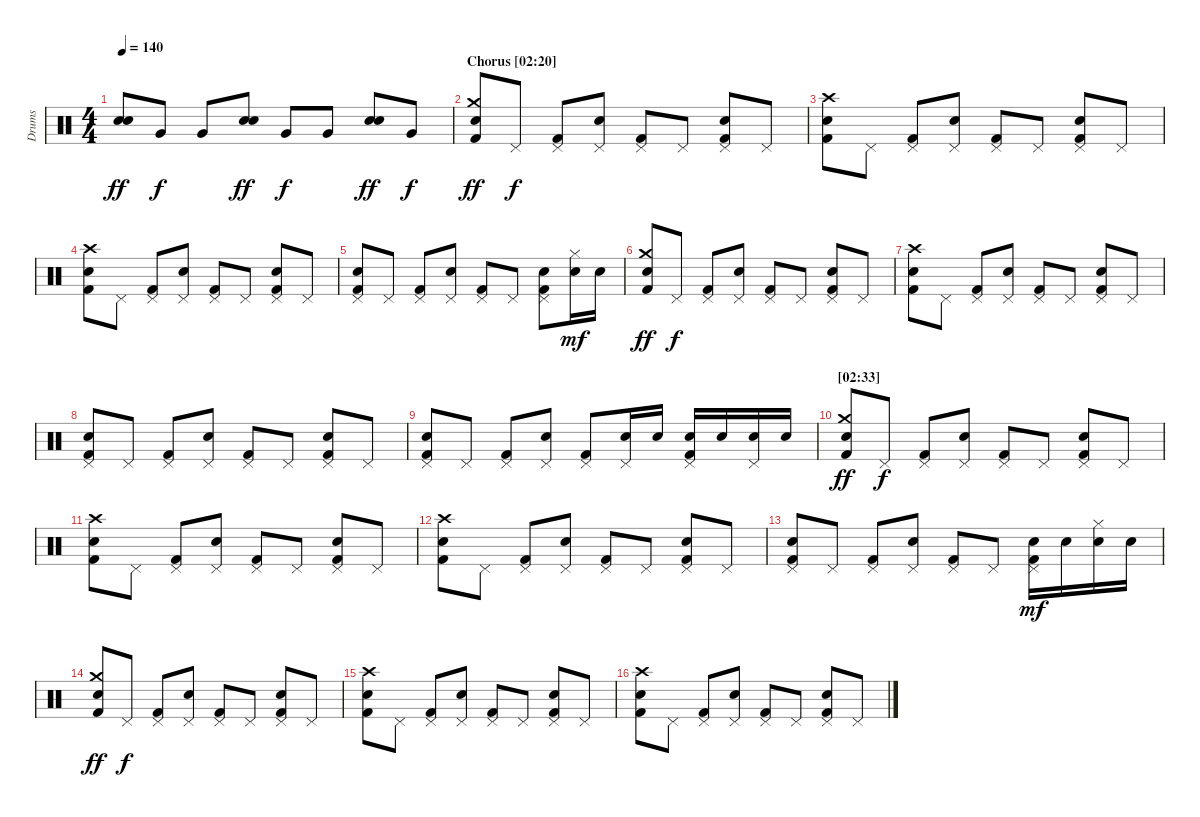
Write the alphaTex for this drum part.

\track ("Drums" "Drums") {instrument percussion}
\staff {score}
\articulation defaults
\ts (4 4)
\tempo 140
\clef neutral
\ks c
("Snare (hit) 2" "Electric Snare (hit)").8{dy ff} "Very Low Tom (hit)".8{dy f} "Very Low Tom (hit)".8 ("Snare (hit) 2" "Electric Snare (hit)").8{dy ff} "Very Low Tom (hit)".8{dy f} "Very Low Tom (hit)".8 ("Snare (hit) 2" "Electric Snare (hit)").8{dy ff} "Very Low Tom (hit)".8{dy f} |
\section ("" "Chorus [02:20]")
("Crash medium (hit)" "Electric Snare (hit)" "Kick (hit) 2").8{dy ff} "Pedal Hi-Hat (hit)".8{dy f} ("Pedal Hi-Hat (hit)" "Kick (hit) 2").8 ("Pedal Hi-Hat (hit)" "Electric Snare (hit)").8 ("Pedal Hi-Hat (hit)" "Kick (hit) 2").8 "Pedal Hi-Hat (hit)".8 ("Pedal Hi-Hat (hit)" "Electric Snare (hit)" "Kick (hit) 2").8 "Pedal Hi-Hat (hit)".8 |
("Crash high (hit)" "Electric Snare (hit)" "Kick (hit) 2").8 "Pedal Hi-Hat (hit)".8 ("Pedal Hi-Hat (hit)" "Kick (hit) 2").8 ("Pedal Hi-Hat (hit)" "Electric Snare (hit)").8 ("Pedal Hi-Hat (hit)" "Kick (hit) 2").8 "Pedal Hi-Hat (hit)".8 ("Pedal Hi-Hat (hit)" "Electric Snare (hit)" "Kick (hit) 2").8 "Pedal Hi-Hat (hit)".8 |
("Crash high (hit)" "Electric Snare (hit)" "Kick (hit) 2").8 "Pedal Hi-Hat (hit)".8 ("Pedal Hi-Hat (hit)" "Kick (hit) 2").8 ("Pedal Hi-Hat (hit)" "Electric Snare (hit)").8 ("Pedal Hi-Hat (hit)" "Kick (hit) 2").8 "Pedal Hi-Hat (hit)".8 ("Pedal Hi-Hat (hit)" "Electric Snare (hit)" "Kick (hit) 2").8 "Pedal Hi-Hat (hit)".8 |
("Pedal Hi-Hat (hit)" "Electric Snare (hit)" "Kick (hit) 2").8 "Pedal Hi-Hat (hit)".8 ("Pedal Hi-Hat (hit)" "Kick (hit) 2").8 ("Pedal Hi-Hat (hit)" "Electric Snare (hit)").8 ("Pedal Hi-Hat (hit)" "Kick (hit) 2").8 "Pedal Hi-Hat (hit)".8 ("Pedal Hi-Hat (hit)" "Electric Snare (hit)" "Kick (hit) 2").8 ("Hi-Hat (closed)" "Electric Snare (hit)").16{dy mf} "Electric Snare (hit)".16 |
("Crash medium (hit)" "Electric Snare (hit)" "Kick (hit) 2").8{dy ff} "Pedal Hi-Hat (hit)".8{dy f} ("Pedal Hi-Hat (hit)" "Kick (hit) 2").8 ("Pedal Hi-Hat (hit)" "Electric Snare (hit)").8 ("Pedal Hi-Hat (hit)" "Kick (hit) 2").8 "Pedal Hi-Hat (hit)".8 ("Pedal Hi-Hat (hit)" "Electric Snare (hit)" "Kick (hit) 2").8 "Pedal Hi-Hat (hit)".8 |
("Crash high (hit)" "Electric Snare (hit)" "Kick (hit) 2").8 "Pedal Hi-Hat (hit)".8 ("Pedal Hi-Hat (hit)" "Kick (hit) 2").8 ("Pedal Hi-Hat (hit)" "Electric Snare (hit)").8 ("Pedal Hi-Hat (hit)" "Kick (hit) 2").8 "Pedal Hi-Hat (hit)".8 ("Pedal Hi-Hat (hit)" "Electric Snare (hit)" "Kick (hit) 2").8 "Pedal Hi-Hat (hit)".8 |
("Pedal Hi-Hat (hit)" "Electric Snare (hit)" "Kick (hit) 2").8 "Pedal Hi-Hat (hit)".8 ("Pedal Hi-Hat (hit)" "Kick (hit) 2").8 ("Pedal Hi-Hat (hit)" "Electric Snare (hit)").8 ("Pedal Hi-Hat (hit)" "Kick (hit) 2").8 "Pedal Hi-Hat (hit)".8 ("Pedal Hi-Hat (hit)" "Electric Snare (hit)" "Kick (hit) 2").8 "Pedal Hi-Hat (hit)".8 |
("Pedal Hi-Hat (hit)" "Electric Snare (hit)" "Kick (hit) 2").8 "Pedal Hi-Hat (hit)".8 ("Pedal Hi-Hat (hit)" "Kick (hit) 2").8 ("Pedal Hi-Hat (hit)" "Electric Snare (hit)").8 ("Pedal Hi-Hat (hit)" "Kick (hit) 2").8 ("Pedal Hi-Hat (hit)" "Electric Snare (hit)").16 "Electric Snare (hit)".16 ("Pedal Hi-Hat (hit)" "Electric Snare (hit)" "Kick (hit) 2").16 "Electric Snare (hit)".16 ("Pedal Hi-Hat (hit)" "Electric Snare (hit)").16 "Electric Snare (hit)".16 |
\section ("" "[02:33]")
("Crash medium (hit)" "Electric Snare (hit)" "Kick (hit) 2").8{dy ff} "Pedal Hi-Hat (hit)".8{dy f} ("Pedal Hi-Hat (hit)" "Kick (hit) 2").8 ("Pedal Hi-Hat (hit)" "Electric Snare (hit)").8 ("Pedal Hi-Hat (hit)" "Kick (hit) 2").8 "Pedal Hi-Hat (hit)".8 ("Pedal Hi-Hat (hit)" "Electric Snare (hit)" "Kick (hit) 2").8 "Pedal Hi-Hat (hit)".8 |
("Crash high (hit)" "Electric Snare (hit)" "Kick (hit) 2").8 "Pedal Hi-Hat (hit)".8 ("Pedal Hi-Hat (hit)" "Kick (hit) 2").8 ("Pedal Hi-Hat (hit)" "Electric Snare (hit)").8 ("Pedal Hi-Hat (hit)" "Kick (hit) 2").8 "Pedal Hi-Hat (hit)".8 ("Pedal Hi-Hat (hit)" "Electric Snare (hit)" "Kick (hit) 2").8 "Pedal Hi-Hat (hit)".8 |
("Crash high (hit)" "Electric Snare (hit)" "Kick (hit) 2").8 "Pedal Hi-Hat (hit)".8 ("Pedal Hi-Hat (hit)" "Kick (hit) 2").8 ("Pedal Hi-Hat (hit)" "Electric Snare (hit)").8 ("Pedal Hi-Hat (hit)" "Kick (hit) 2").8 "Pedal Hi-Hat (hit)".8 ("Pedal Hi-Hat (hit)" "Electric Snare (hit)" "Kick (hit) 2").8 "Pedal Hi-Hat (hit)".8 |
("Pedal Hi-Hat (hit)" "Electric Snare (hit)" "Kick (hit) 2").8 "Pedal Hi-Hat (hit)".8 ("Pedal Hi-Hat (hit)" "Kick (hit) 2").8 ("Pedal Hi-Hat (hit)" "Electric Snare (hit)").8 ("Pedal Hi-Hat (hit)" "Kick (hit) 2").8 "Pedal Hi-Hat (hit)".8 ("Pedal Hi-Hat (hit)" "Electric Snare (hit)" "Kick (hit) 2").16{dy mf} "Electric Snare (hit)".16 ("Hi-Hat (closed)" "Electric Snare (hit)").16 "Electric Snare (hit)".16 |
\section ("" "")
("Crash medium (hit)" "Electric Snare (hit)" "Kick (hit) 2").8{dy ff} "Pedal Hi-Hat (hit)".8{dy f} ("Pedal Hi-Hat (hit)" "Kick (hit) 2").8 ("Pedal Hi-Hat (hit)" "Electric Snare (hit)").8 ("Pedal Hi-Hat (hit)" "Kick (hit) 2").8 "Pedal Hi-Hat (hit)".8 ("Pedal Hi-Hat (hit)" "Electric Snare (hit)" "Kick (hit) 2").8 "Pedal Hi-Hat (hit)".8 |
("Crash high (hit)" "Electric Snare (hit)" "Kick (hit) 2").8 "Pedal Hi-Hat (hit)".8 ("Pedal Hi-Hat (hit)" "Kick (hit) 2").8 ("Pedal Hi-Hat (hit)" "Electric Snare (hit)").8 ("Pedal Hi-Hat (hit)" "Kick (hit) 2").8 "Pedal Hi-Hat (hit)".8 ("Pedal Hi-Hat (hit)" "Electric Snare (hit)" "Kick (hit) 2").8 "Pedal Hi-Hat (hit)".8 |
("Crash high (hit)" "Electric Snare (hit)" "Kick (hit) 2").8 "Pedal Hi-Hat (hit)".8 ("Pedal Hi-Hat (hit)" "Kick (hit) 2").8 ("Pedal Hi-Hat (hit)" "Electric Snare (hit)").8 ("Pedal Hi-Hat (hit)" "Kick (hit) 2").8 "Pedal Hi-Hat (hit)".8 ("Pedal Hi-Hat (hit)" "Electric Snare (hit)" "Kick (hit) 2").8 "Pedal Hi-Hat (hit)".8
